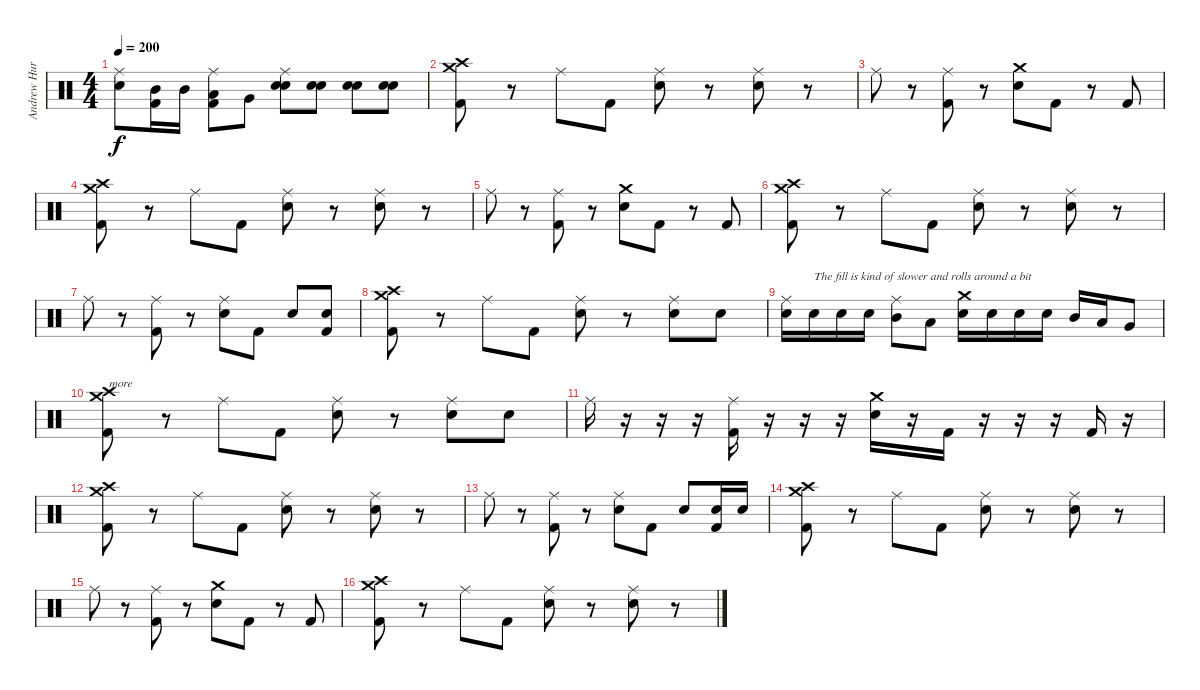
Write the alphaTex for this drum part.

\track ("Andrew Hurley (Drums)" "Andrew Hur") {instrument percussion}
\staff {score}
\articulation defaults
\ts (4 4)
\tempo 200
\clef neutral
\ks c
("Ride (middle)" "Electric Snare (hit)").8{dy f} ("Mid Tom (hit)" "Kick (hit) 2").16 "Mid Tom (hit)".16 ("Ride (middle)" "Low Tom (hit)" "Kick (hit) 2").8 "Very Low Tom (hit)".8 ("Ride (middle)" "Electric Snare (hit)" "Snare (hit) 2").8 ("Electric Snare (hit)" "Snare (hit) 2").8 ("Electric Snare (hit)" "Snare (hit) 2").8 ("Electric Snare (hit)" "Snare (hit) 2").8 |
("Crash medium (hit)" "Crash high (hit)" "Kick (hit) 2").8 r.8 "Ride (middle)".8 "Kick (hit) 2".8 ("Ride (middle)" "Electric Snare (hit)").8 r.8 ("Ride (middle)" "Electric Snare (hit)").8 r.8 |
"Ride (middle)".8 r.8 ("Ride (middle)" "Kick (hit) 2").8 r.8 ("Crash medium (hit)" "Electric Snare (hit)").8 "Kick (hit) 2".8 r.8 "Kick (hit) 2".8 |
("Crash medium (hit)" "Crash high (hit)" "Kick (hit) 2").8 r.8 "Ride (middle)".8 "Kick (hit) 2".8 ("Ride (middle)" "Electric Snare (hit)").8 r.8 ("Ride (middle)" "Electric Snare (hit)").8 r.8 |
"Ride (middle)".8 r.8 ("Ride (middle)" "Kick (hit) 2").8 r.8 ("Crash medium (hit)" "Electric Snare (hit)").8 "Kick (hit) 2".8 r.8 "Kick (hit) 2".8 |
("Crash medium (hit)" "Crash high (hit)" "Kick (hit) 2").8 r.8 "Ride (middle)".8 "Kick (hit) 2".8 ("Ride (middle)" "Electric Snare (hit)").8 r.8 ("Ride (middle)" "Electric Snare (hit)").8 r.8 |
"Ride (middle)".8 r.8 ("Ride (middle)" "Kick (hit) 2").8 r.8 ("Ride (middle)" "Electric Snare (hit)").8 "Kick (hit) 2".8 "Electric Snare (hit)".8 ("Electric Snare (hit)" "Kick (hit) 2").8 |
("Crash medium (hit)" "Crash high (hit)" "Kick (hit) 2").8 r.8 "Ride (middle)".8 "Kick (hit) 2".8 ("Ride (middle)" "Electric Snare (hit)").8 r.8 ("Ride (middle)" "Electric Snare (hit)").8 "Electric Snare (hit)".8 |
("Ride (middle)" "Electric Snare (hit)").16 "Electric Snare (hit)".16{txt "The fill is kind of slower and rolls around a bit"} "Snare (hit) 2".16 "Snare (hit) 2".16 ("Ride (middle)" "Mid Tom (hit)").8 "Low Tom (hit)".8 ("Crash medium (hit)" "Electric Snare (hit)").16 "Electric Snare (hit)".16 "Electric Snare (hit)".16 "Snare (hit) 2".16 "Mid Tom (hit)".16 "Low Tom (hit)".16 "Very Low Tom (hit)".8 |
("Crash medium (hit)" "Crash high (hit)" "Kick (hit) 2").8{txt "more"} r.8 "Ride (middle)".8 "Kick (hit) 2".8 ("Ride (middle)" "Electric Snare (hit)").8 r.8 ("Ride (middle)" "Electric Snare (hit)").8 "Electric Snare (hit)".8 |
"Ride (middle)".16 r.16 r.16 r.16 ("Ride (middle)" "Kick (hit) 2").16 r.16 r.16 r.16 ("Crash medium (hit)" "Electric Snare (hit)").16 r.16 "Kick (hit) 2".16 r.16 r.16 r.16 "Kick (hit) 2".16 r.16 |
("Crash medium (hit)" "Crash high (hit)" "Kick (hit) 2").8 r.8 "Ride (middle)".8 "Kick (hit) 2".8 ("Ride (middle)" "Electric Snare (hit)").8 r.8 ("Ride (middle)" "Electric Snare (hit)").8 r.8 |
"Ride (middle)".8 r.8 ("Ride (middle)" "Kick (hit) 2").8 r.8 ("Ride (middle)" "Electric Snare (hit)").8 "Kick (hit) 2".8 "Electric Snare (hit)".8 ("Electric Snare (hit)" "Kick (hit) 2").16 "Electric Snare (hit)".16 |
("Crash medium (hit)" "Crash high (hit)" "Kick (hit) 2").8 r.8 "Ride (middle)".8 "Kick (hit) 2".8 ("Ride (middle)" "Electric Snare (hit)").8 r.8 ("Ride (middle)" "Electric Snare (hit)").8 r.8 |
"Ride (middle)".8 r.8 ("Ride (middle)" "Kick (hit) 2").8 r.8 ("Crash medium (hit)" "Electric Snare (hit)").8 "Kick (hit) 2".8 r.8 "Kick (hit) 2".8 |
("Crash medium (hit)" "Crash high (hit)" "Kick (hit) 2").8 r.8 "Ride (middle)".8 "Kick (hit) 2".8 ("Ride (middle)" "Electric Snare (hit)").8 r.8 ("Ride (middle)" "Electric Snare (hit)").8 r.8
